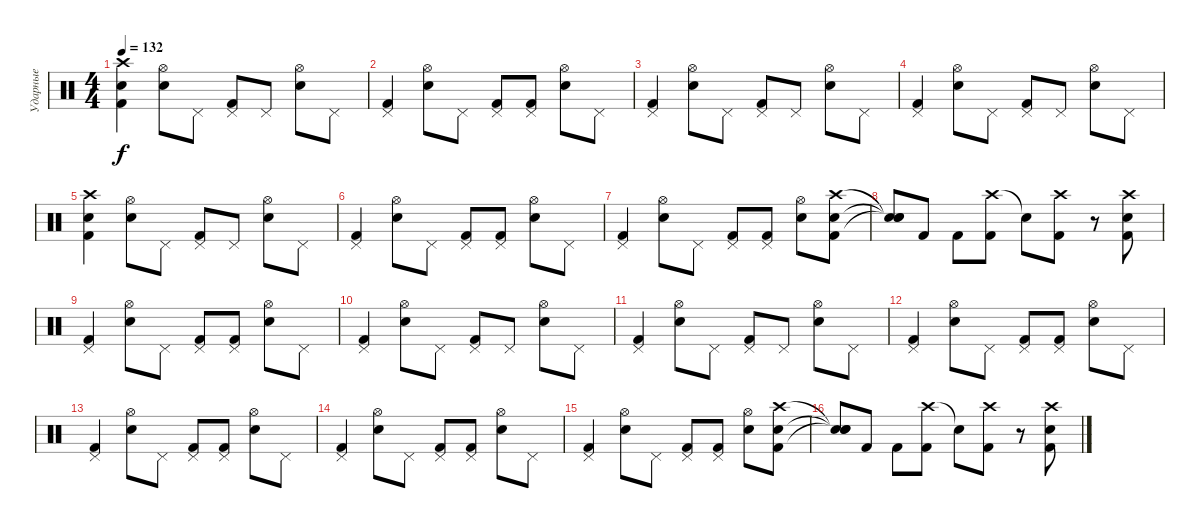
\track ("Ударные" "Ударные") {instrument percussion}
\staff {score}
\articulation defaults
\ts (4 4)
\tempo 132
\clef neutral
\ks c
("Electric Snare (hit)" "Kick (hit) 2" "Crash high (hit)").4{dy f} ("Hi-Hat (open)" "Electric Snare (hit)").8 "Pedal Hi-Hat (hit)".8 ("Kick (hit) 2" "Pedal Hi-Hat (hit)").8 "Pedal Hi-Hat (hit)".8 ("Electric Snare (hit)" "Hi-Hat (open)").8 "Pedal Hi-Hat (hit)".8 |
("Kick (hit) 2" "Pedal Hi-Hat (hit)").4 ("Hi-Hat (open)" "Electric Snare (hit)").8 "Pedal Hi-Hat (hit)".8 ("Kick (hit) 2" "Pedal Hi-Hat (hit)").8 ("Kick (hit) 2" "Pedal Hi-Hat (hit)").8 ("Electric Snare (hit)" "Hi-Hat (open)").8 "Pedal Hi-Hat (hit)".8 |
("Pedal Hi-Hat (hit)" "Kick (hit) 2").4 ("Hi-Hat (open)" "Electric Snare (hit)").8 "Pedal Hi-Hat (hit)".8 ("Kick (hit) 2" "Pedal Hi-Hat (hit)").8 "Pedal Hi-Hat (hit)".8 ("Electric Snare (hit)" "Hi-Hat (open)").8 "Pedal Hi-Hat (hit)".8 |
("Pedal Hi-Hat (hit)" "Kick (hit) 2").4 ("Hi-Hat (open)" "Electric Snare (hit)").8 "Pedal Hi-Hat (hit)".8 ("Kick (hit) 2" "Pedal Hi-Hat (hit)").8 "Pedal Hi-Hat (hit)".8 ("Electric Snare (hit)" "Hi-Hat (open)").8 "Pedal Hi-Hat (hit)".8 |
("Electric Snare (hit)" "Kick (hit) 2" "Crash high (hit)").4 ("Hi-Hat (open)" "Electric Snare (hit)").8 "Pedal Hi-Hat (hit)".8 ("Kick (hit) 2" "Pedal Hi-Hat (hit)").8 "Pedal Hi-Hat (hit)".8 ("Electric Snare (hit)" "Hi-Hat (open)").8 "Pedal Hi-Hat (hit)".8 |
("Kick (hit) 2" "Pedal Hi-Hat (hit)").4 ("Hi-Hat (open)" "Electric Snare (hit)").8 "Pedal Hi-Hat (hit)".8 ("Kick (hit) 2" "Pedal Hi-Hat (hit)").8 ("Kick (hit) 2" "Pedal Hi-Hat (hit)").8 ("Electric Snare (hit)" "Hi-Hat (open)").8 "Pedal Hi-Hat (hit)".8 |
("Kick (hit) 2" "Pedal Hi-Hat (hit)").4 ("Hi-Hat (open)" "Electric Snare (hit)").8 "Pedal Hi-Hat (hit)".8 ("Kick (hit) 2" "Pedal Hi-Hat (hit)").8 ("Kick (hit) 2" "Pedal Hi-Hat (hit)").8 ("Electric Snare (hit)" "Hi-Hat (open)").8 ("Crash high (hit)" "Kick (hit) 2" "Electric Snare (hit)").8 |
("Snare (hit)"{t} "Snare (hit)"{t} "Snare (hit)"{t}).8 "Kick (hit) 2".8 "Kick (hit) 2".8 ("Crash high (hit)" "Kick (hit) 2").8 "Snare (hit)"{t}.8 ("Crash high (hit)" "Kick (hit) 2").8 r.8 ("Crash high (hit)" "Electric Snare (hit)" "Kick (hit) 2").8 |
("Kick (hit) 2" "Pedal Hi-Hat (hit)").4 ("Hi-Hat (open)" "Electric Snare (hit)").8 "Pedal Hi-Hat (hit)".8 ("Kick (hit) 2" "Pedal Hi-Hat (hit)").8 ("Kick (hit) 2" "Pedal Hi-Hat (hit)").8 ("Electric Snare (hit)" "Hi-Hat (open)").8 "Pedal Hi-Hat (hit)".8 |
("Pedal Hi-Hat (hit)" "Kick (hit) 2").4 ("Hi-Hat (open)" "Electric Snare (hit)").8 "Pedal Hi-Hat (hit)".8 ("Kick (hit) 2" "Pedal Hi-Hat (hit)").8 "Pedal Hi-Hat (hit)".8 ("Electric Snare (hit)" "Hi-Hat (open)").8 "Pedal Hi-Hat (hit)".8 |
("Pedal Hi-Hat (hit)" "Kick (hit) 2").4 ("Hi-Hat (open)" "Electric Snare (hit)").8 "Pedal Hi-Hat (hit)".8 ("Kick (hit) 2" "Pedal Hi-Hat (hit)").8 "Pedal Hi-Hat (hit)".8 ("Electric Snare (hit)" "Hi-Hat (open)").8 "Pedal Hi-Hat (hit)".8 |
("Kick (hit) 2" "Pedal Hi-Hat (hit)").4 ("Hi-Hat (open)" "Electric Snare (hit)").8 "Pedal Hi-Hat (hit)".8 ("Kick (hit) 2" "Pedal Hi-Hat (hit)").8 ("Kick (hit) 2" "Pedal Hi-Hat (hit)").8 ("Electric Snare (hit)" "Hi-Hat (open)").8 "Pedal Hi-Hat (hit)".8 |
("Kick (hit) 2" "Pedal Hi-Hat (hit)").4 ("Hi-Hat (open)" "Electric Snare (hit)").8 "Pedal Hi-Hat (hit)".8 ("Kick (hit) 2" "Pedal Hi-Hat (hit)").8 ("Kick (hit) 2" "Pedal Hi-Hat (hit)").8 ("Electric Snare (hit)" "Hi-Hat (open)").8 "Pedal Hi-Hat (hit)".8 |
("Kick (hit) 2" "Pedal Hi-Hat (hit)").4 ("Hi-Hat (open)" "Electric Snare (hit)").8 "Pedal Hi-Hat (hit)".8 ("Kick (hit) 2" "Pedal Hi-Hat (hit)").8 ("Kick (hit) 2" "Pedal Hi-Hat (hit)").8 ("Electric Snare (hit)" "Hi-Hat (open)").8 "Pedal Hi-Hat (hit)".8 |
("Kick (hit) 2" "Pedal Hi-Hat (hit)").4 ("Hi-Hat (open)" "Electric Snare (hit)").8 "Pedal Hi-Hat (hit)".8 ("Kick (hit) 2" "Pedal Hi-Hat (hit)").8 ("Kick (hit) 2" "Pedal Hi-Hat (hit)").8 ("Electric Snare (hit)" "Hi-Hat (open)").8 ("Crash high (hit)" "Kick (hit) 2" "Electric Snare (hit)").8 |
("Snare (hit)"{t} "Snare (hit)"{t} "Snare (hit)"{t}).8 "Kick (hit) 2".8 "Kick (hit) 2".8 ("Crash high (hit)" "Kick (hit) 2").8 "Snare (hit)"{t}.8 ("Crash high (hit)" "Kick (hit) 2").8 r.8 ("Crash high (hit)" "Electric Snare (hit)" "Kick (hit) 2").8
